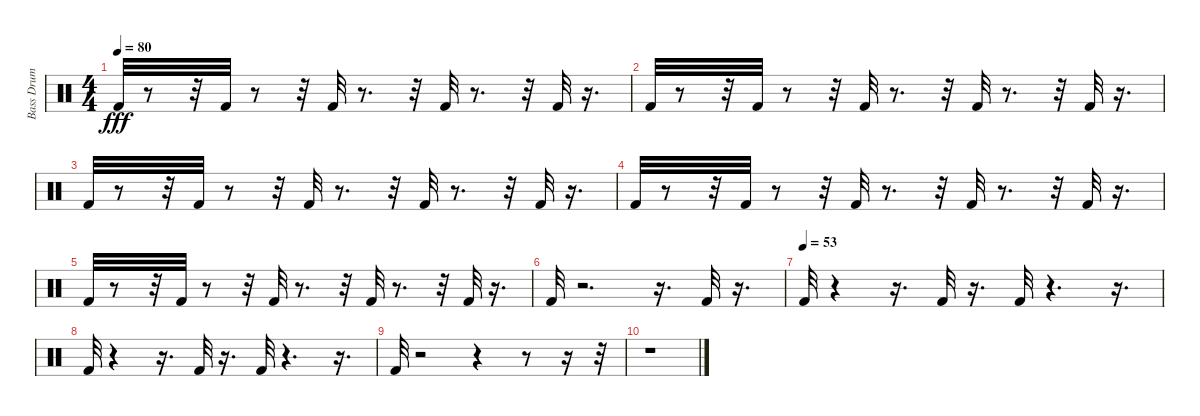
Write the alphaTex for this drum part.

\track ("Bass Drum" "Bass Drum") {instrument percussion}
\staff {score}
\articulation defaults
\ts (4 4)
\tempo 80
\clef neutral
\ks c "Kick (hit) 2".32{dy fff}
r.8 r.32 "Kick (hit) 2".32 r.8 r.32 "Kick (hit) 2".32 r.8{d} r.32 "Kick (hit) 2".32 r.8{d} r.32 "Kick (hit) 2".32 r.16{d} |
"Kick (hit) 2".32 r.8 r.32 "Kick (hit) 2".32 r.8 r.32 "Kick (hit) 2".32 r.8{d} r.32 "Kick (hit) 2".32 r.8{d} r.32 "Kick (hit) 2".32 r.16{d} |
"Kick (hit) 2".32 r.8 r.32 "Kick (hit) 2".32 r.8 r.32 "Kick (hit) 2".32 r.8{d} r.32 "Kick (hit) 2".32 r.8{d} r.32 "Kick (hit) 2".32 r.16{d} |
"Kick (hit) 2".32 r.8 r.32 "Kick (hit) 2".32 r.8 r.32 "Kick (hit) 2".32 r.8{d} r.32 "Kick (hit) 2".32 r.8{d} r.32 "Kick (hit) 2".32 r.16{d} |
"Kick (hit) 2".32 r.8 r.32 "Kick (hit) 2".32 r.8 r.32 "Kick (hit) 2".32 r.8{d} r.32 "Kick (hit) 2".32 r.8{d} r.32 "Kick (hit) 2".32 r.16{d} |
"Kick (hit) 2".32 r.2{d} r.16{d} "Kick (hit) 2".32 r.16{d} |
\tempo (53)
"Kick (hit) 2".32 r.4 r.16{d} "Kick (hit) 2".32 r.16{d} "Kick (hit) 2".32 r.4{d} r.16{d} |
"Kick (hit) 2".32 r.4 r.16{d} "Kick (hit) 2".32 r.16{d} "Kick (hit) 2".32 r.4{d} r.16{d} |
"Kick (hit) 2".32 r.2 r.4 r.8 r.16 r.32 |
r.1
